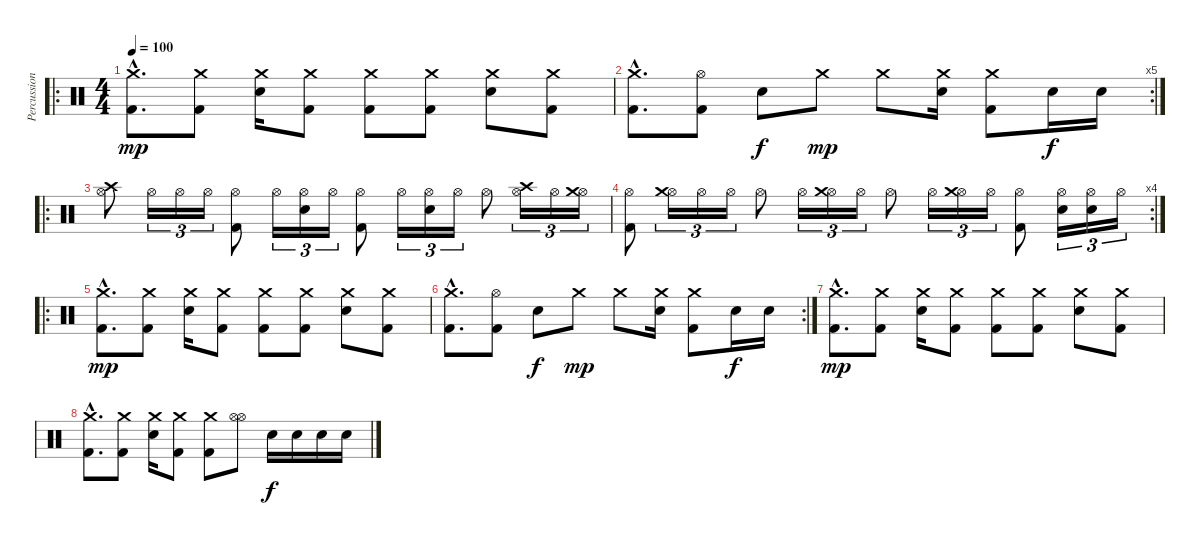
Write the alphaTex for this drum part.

\track ("Percussion" "Percussion") {instrument percussion}
\staff {score}
\articulation defaults
\ro
\ts (4 4)
\tempo 100
\clef neutral
\ks c
("Crash medium (hit)"{hac} "Kick (hit) 2"{hac}).8{d dy mp} ("Crash medium (hit)" "Kick (hit) 2").8 ("Crash medium (hit)" "Snare (hit) 2").16 ("Crash medium (hit)" "Kick (hit) 2").8 ("Crash medium (hit)" "Kick (hit) 2").8 ("Crash medium (hit)" "Kick (hit) 2").8 ("Crash medium (hit)" "Snare (hit) 2").8 ("Crash medium (hit)" "Kick (hit) 2").8 |
\rc 5
("Crash medium (hit)"{hac} "Kick (hit) 2"{hac}).8{d} ("Hi-Hat (open)" "Kick (hit) 2").8 "Snare (hit) 2".8{dy f} "Crash medium (hit)".8{dy mp} "Crash medium (hit)".8 ("Crash medium (hit)" "Snare (hit) 2").16 ("Crash medium (hit)" "Kick (hit) 2").8 "Snare (hit) 2".16{dy f} "Snare (hit) 2".16 |
\ro
("Hi-Hat (open)" "Crash high (hit)").8 "Hi-Hat (open)".16{tu (3 2)} "Hi-Hat (open)".16{tu (3 2)} "Hi-Hat (open)".16{tu (3 2)} ("Hi-Hat (open)" "Kick (hit) 2").8 "Hi-Hat (open)".16{tu (3 2)} ("Hi-Hat (open)" "Snare (hit) 2").16{tu (3 2)} "Hi-Hat (open)".16{tu (3 2)} ("Hi-Hat (open)" "Kick (hit) 2").8 "Hi-Hat (open)".16{tu (3 2)} ("Hi-Hat (open)" "Snare (hit) 2").16{tu (3 2)} "Hi-Hat (open)".16{tu (3 2)} "Hi-Hat (open)".8 ("Hi-Hat (open)" "Crash high (hit)").16{tu (3 2)} "Hi-Hat (open)".16{tu (3 2)} ("Hi-Hat (open)" "Crash medium (hit)").16{tu (3 2)} |
\rc 4
("Hi-Hat (open)" "Kick (hit) 2").8 ("Hi-Hat (open)" "Crash medium (hit)").16{tu (3 2)} "Hi-Hat (open)".16{tu (3 2)} "Hi-Hat (open)".16{tu (3 2)} "Hi-Hat (open)".8 "Hi-Hat (open)".16{tu (3 2)} ("Hi-Hat (open)" "Crash medium (hit)").16{tu (3 2)} "Hi-Hat (open)".16{tu (3 2)} "Hi-Hat (open)".8 "Hi-Hat (open)".16{tu (3 2)} ("Hi-Hat (open)" "Crash medium (hit)").16{tu (3 2)} "Hi-Hat (open)".16{tu (3 2)} ("Hi-Hat (open)" "Kick (hit) 2").8 ("Hi-Hat (open)" "Snare (hit) 2").16{tu (3 2)} ("Hi-Hat (open)" "Electric Snare (hit)").16{tu (3 2)} "Hi-Hat (open)".16{tu (3 2)} |
\ro
("Crash medium (hit)"{hac} "Kick (hit) 2"{hac}).8{d dy mp} ("Crash medium (hit)" "Kick (hit) 2").8 ("Crash medium (hit)" "Snare (hit) 2").16 ("Crash medium (hit)" "Kick (hit) 2").8 ("Crash medium (hit)" "Kick (hit) 2").8 ("Crash medium (hit)" "Kick (hit) 2").8 ("Crash medium (hit)" "Snare (hit) 2").8 ("Crash medium (hit)" "Kick (hit) 2").8 |
\rc 2
("Crash medium (hit)"{hac} "Kick (hit) 2"{hac}).8{d} ("Hi-Hat (open)" "Kick (hit) 2").8 "Snare (hit) 2".8{dy f} "Crash medium (hit)".8{dy mp} "Crash medium (hit)".8 ("Crash medium (hit)" "Snare (hit) 2").16 ("Crash medium (hit)" "Kick (hit) 2").8 "Snare (hit) 2".16{dy f} "Snare (hit) 2".16 |
("Crash medium (hit)"{hac} "Kick (hit) 2"{hac}).8{d dy mp} ("Crash medium (hit)" "Kick (hit) 2").8 ("Crash medium (hit)" "Snare (hit) 2").16 ("Crash medium (hit)" "Kick (hit) 2").8 ("Crash medium (hit)" "Kick (hit) 2").8 ("Crash medium (hit)" "Kick (hit) 2").8 ("Crash medium (hit)" "Snare (hit) 2").8 ("Crash medium (hit)" "Kick (hit) 2").8 |
("Crash medium (hit)"{hac} "Kick (hit) 2"{hac}).8{d} ("Crash medium (hit)" "Kick (hit) 2").8 ("Crash medium (hit)" "Snare (hit) 2").16 ("Crash medium (hit)" "Kick (hit) 2").8 ("Crash medium (hit)" "Kick (hit) 2").8 ("Hi-Hat (open)" "Hi-Hat (open)").8 "Snare (hit) 2".16{dy f} "Snare (hit) 2".16 "Snare (hit) 2".16 "Snare (hit) 2".16
